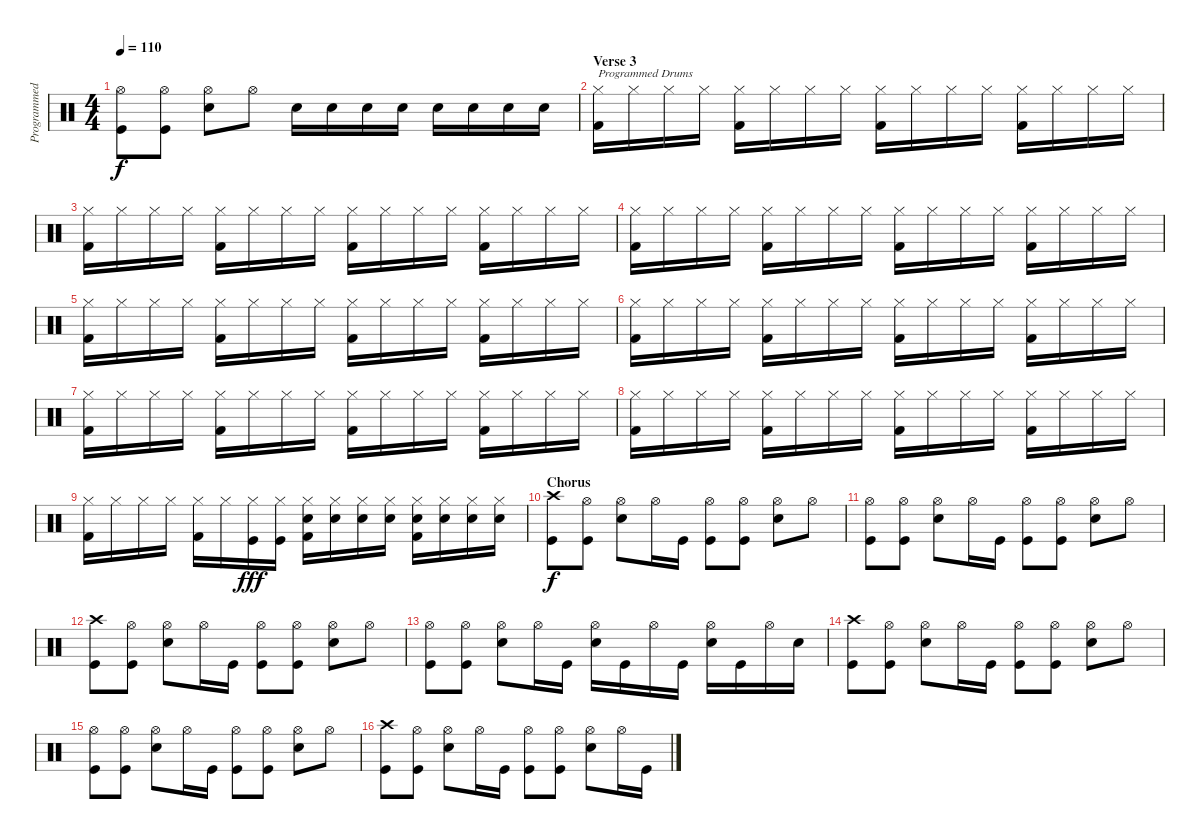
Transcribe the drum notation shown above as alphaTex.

\track ("Programmed Drums" "Programmed") {instrument percussion}
\staff {score}
\articulation defaults
\ts (4 4)
\tempo 110
\clef neutral
\ks c
("Hi-Hat (open)" "Kick (hit)").8{dy f} ("Hi-Hat (open)" "Kick (hit)").8 ("Hi-Hat (open)" "Electric Snare (hit)").8 "Hi-Hat (open)".8 "Electric Snare (hit)".16 "Electric Snare (hit)".16 "Electric Snare (hit)".16 "Electric Snare (hit)".16 "Electric Snare (hit)".16 "Electric Snare (hit)".16 "Electric Snare (hit)".16 "Electric Snare (hit)".16 |
\section ("" "Verse 3")
("Hi-Hat (closed)" "Kick (hit) 2").16{txt "Programmed Drums" volume 10} "Hi-Hat (closed)".16 "Hi-Hat (closed)".16 "Hi-Hat (closed)".16 ("Hi-Hat (closed)" "Kick (hit) 2").16 "Hi-Hat (closed)".16 "Hi-Hat (closed)".16 "Hi-Hat (closed)".16 ("Hi-Hat (closed)" "Kick (hit) 2").16 "Hi-Hat (closed)".16 "Hi-Hat (closed)".16 "Hi-Hat (closed)".16 ("Hi-Hat (closed)" "Kick (hit) 2").16 "Hi-Hat (closed)".16 "Hi-Hat (closed)".16 "Hi-Hat (closed)".16 |
("Hi-Hat (closed)" "Kick (hit) 2").16 "Hi-Hat (closed)".16 "Hi-Hat (closed)".16 "Hi-Hat (closed)".16 ("Hi-Hat (closed)" "Kick (hit) 2").16 "Hi-Hat (closed)".16 "Hi-Hat (closed)".16 "Hi-Hat (closed)".16 ("Hi-Hat (closed)" "Kick (hit) 2").16 "Hi-Hat (closed)".16 "Hi-Hat (closed)".16 "Hi-Hat (closed)".16 ("Hi-Hat (closed)" "Kick (hit) 2").16 "Hi-Hat (closed)".16 "Hi-Hat (closed)".16 "Hi-Hat (closed)".16 |
("Hi-Hat (closed)" "Kick (hit) 2").16 "Hi-Hat (closed)".16 "Hi-Hat (closed)".16 "Hi-Hat (closed)".16 ("Hi-Hat (closed)" "Kick (hit) 2").16 "Hi-Hat (closed)".16 "Hi-Hat (closed)".16 "Hi-Hat (closed)".16 ("Hi-Hat (closed)" "Kick (hit) 2").16 "Hi-Hat (closed)".16 "Hi-Hat (closed)".16 "Hi-Hat (closed)".16 ("Hi-Hat (closed)" "Kick (hit) 2").16 "Hi-Hat (closed)".16 "Hi-Hat (closed)".16 "Hi-Hat (closed)".16 |
("Hi-Hat (closed)" "Kick (hit) 2").16 "Hi-Hat (closed)".16 "Hi-Hat (closed)".16 "Hi-Hat (closed)".16 ("Hi-Hat (closed)" "Kick (hit) 2").16 "Hi-Hat (closed)".16 "Hi-Hat (closed)".16 "Hi-Hat (closed)".16 ("Hi-Hat (closed)" "Kick (hit) 2").16 "Hi-Hat (closed)".16 "Hi-Hat (closed)".16 "Hi-Hat (closed)".16 ("Hi-Hat (closed)" "Kick (hit) 2").16 "Hi-Hat (closed)".16 "Hi-Hat (closed)".16 "Hi-Hat (closed)".16 |
("Hi-Hat (closed)" "Kick (hit) 2").16 "Hi-Hat (closed)".16 "Hi-Hat (closed)".16 "Hi-Hat (closed)".16 ("Hi-Hat (closed)" "Kick (hit) 2").16 "Hi-Hat (closed)".16 "Hi-Hat (closed)".16 "Hi-Hat (closed)".16 ("Hi-Hat (closed)" "Kick (hit) 2").16 "Hi-Hat (closed)".16 "Hi-Hat (closed)".16 "Hi-Hat (closed)".16 ("Hi-Hat (closed)" "Kick (hit) 2").16 "Hi-Hat (closed)".16 "Hi-Hat (closed)".16 "Hi-Hat (closed)".16 |
("Hi-Hat (closed)" "Kick (hit) 2").16 "Hi-Hat (closed)".16 "Hi-Hat (closed)".16 "Hi-Hat (closed)".16 ("Hi-Hat (closed)" "Kick (hit) 2").16 "Hi-Hat (closed)".16 "Hi-Hat (closed)".16 "Hi-Hat (closed)".16 ("Hi-Hat (closed)" "Kick (hit) 2").16 "Hi-Hat (closed)".16 "Hi-Hat (closed)".16 "Hi-Hat (closed)".16 ("Hi-Hat (closed)" "Kick (hit) 2").16 "Hi-Hat (closed)".16 "Hi-Hat (closed)".16 "Hi-Hat (closed)".16 |
("Hi-Hat (closed)" "Kick (hit) 2").16 "Hi-Hat (closed)".16 "Hi-Hat (closed)".16 "Hi-Hat (closed)".16 ("Hi-Hat (closed)" "Kick (hit) 2").16 "Hi-Hat (closed)".16 "Hi-Hat (closed)".16 "Hi-Hat (closed)".16 ("Hi-Hat (closed)" "Kick (hit) 2").16 "Hi-Hat (closed)".16 "Hi-Hat (closed)".16 "Hi-Hat (closed)".16 ("Hi-Hat (closed)" "Kick (hit) 2").16 "Hi-Hat (closed)".16 "Hi-Hat (closed)".16 "Hi-Hat (closed)".16 |
("Hi-Hat (closed)" "Kick (hit) 2").16 "Hi-Hat (closed)".16 "Hi-Hat (closed)".16 "Hi-Hat (closed)".16 ("Hi-Hat (closed)" "Kick (hit) 2").16 "Hi-Hat (closed)".16 ("Hi-Hat (closed)" "Kick (hit)").16{dy fff} ("Hi-Hat (closed)" "Kick (hit)").16 ("Hi-Hat (closed)" "Electric Snare (hit)" "Kick (hit) 2").16 ("Hi-Hat (closed)" "Electric Snare (hit)").16 ("Hi-Hat (closed)" "Electric Snare (hit)").16 ("Hi-Hat (closed)" "Electric Snare (hit)").16 ("Hi-Hat (closed)" "Electric Snare (hit)" "Kick (hit) 2").16 ("Hi-Hat (closed)" "Electric Snare (hit)").16 ("Hi-Hat (closed)" "Electric Snare (hit)").16 ("Hi-Hat (closed)" "Electric Snare (hit)").16 |
\section ("" "Chorus")
("Crash high (hit)" "Kick (hit)").8{dy f volume 14} ("Hi-Hat (open)" "Kick (hit)").8 ("Hi-Hat (open)" "Electric Snare (hit)").8 "Hi-Hat (open)".16 "Kick (hit)".16 ("Hi-Hat (open)" "Kick (hit)").8 ("Hi-Hat (open)" "Kick (hit)").8 ("Hi-Hat (open)" "Electric Snare (hit)").8 "Hi-Hat (open)".8 |
("Hi-Hat (open)" "Kick (hit)").8 ("Hi-Hat (open)" "Kick (hit)").8 ("Hi-Hat (open)" "Electric Snare (hit)").8 "Hi-Hat (open)".16 "Kick (hit)".16 ("Hi-Hat (open)" "Kick (hit)").8 ("Hi-Hat (open)" "Kick (hit)").8 ("Hi-Hat (open)" "Electric Snare (hit)").8 "Hi-Hat (open)".8 |
("Crash high (hit)" "Kick (hit)").8 ("Hi-Hat (open)" "Kick (hit)").8 ("Hi-Hat (open)" "Electric Snare (hit)").8 "Hi-Hat (open)".16 "Kick (hit)".16 ("Hi-Hat (open)" "Kick (hit)").8 ("Hi-Hat (open)" "Kick (hit)").8 ("Hi-Hat (open)" "Electric Snare (hit)").8 "Hi-Hat (open)".8 |
("Hi-Hat (open)" "Kick (hit)").8 ("Hi-Hat (open)" "Kick (hit)").8 ("Hi-Hat (open)" "Electric Snare (hit)").8 "Hi-Hat (open)".16 "Kick (hit)".16 ("Hi-Hat (open)" "Electric Snare (hit)").16 "Kick (hit)".16 "Hi-Hat (open)".16 "Kick (hit)".16 ("Hi-Hat (open)" "Electric Snare (hit)").16 "Kick (hit)".16 "Hi-Hat (open)".16 "Electric Snare (hit)".16 |
("Crash high (hit)" "Kick (hit)").8 ("Hi-Hat (open)" "Kick (hit)").8 ("Hi-Hat (open)" "Electric Snare (hit)").8 "Hi-Hat (open)".16 "Kick (hit)".16 ("Hi-Hat (open)" "Kick (hit)").8 ("Hi-Hat (open)" "Kick (hit)").8 ("Hi-Hat (open)" "Electric Snare (hit)").8 "Hi-Hat (open)".8 |
("Hi-Hat (open)" "Kick (hit)").8 ("Hi-Hat (open)" "Kick (hit)").8 ("Hi-Hat (open)" "Electric Snare (hit)").8 "Hi-Hat (open)".16 "Kick (hit)".16 ("Hi-Hat (open)" "Kick (hit)").8 ("Hi-Hat (open)" "Kick (hit)").8 ("Hi-Hat (open)" "Electric Snare (hit)").8 "Hi-Hat (open)".8 |
("Crash high (hit)" "Kick (hit)").8 ("Hi-Hat (open)" "Kick (hit)").8 ("Hi-Hat (open)" "Electric Snare (hit)").8 "Hi-Hat (open)".16 "Kick (hit)".16 ("Hi-Hat (open)" "Kick (hit)").8 ("Hi-Hat (open)" "Kick (hit)").8 ("Hi-Hat (open)" "Electric Snare (hit)").8 "Hi-Hat (open)".16 "Kick (hit)".16
